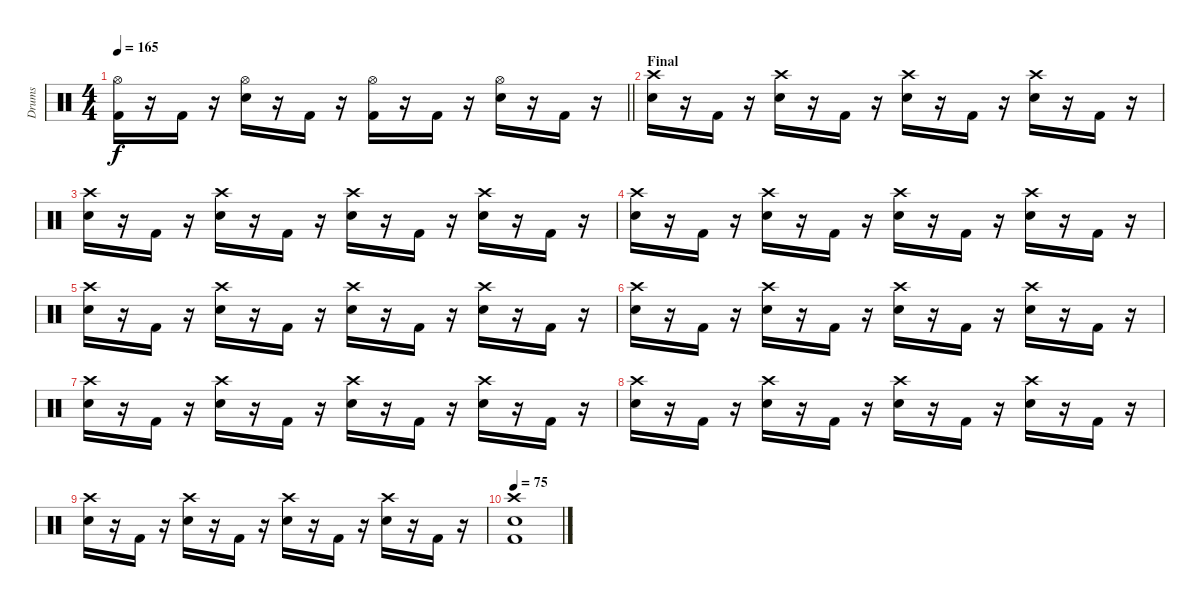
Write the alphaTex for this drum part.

\track ("Drums" "Drums") {instrument percussion}
\staff {score}
\articulation defaults
\ts (4 4)
\tempo 165
\clef neutral
\barLineRight lightlight
\ks c
("Hi-Hat (open)" "Kick (hit) 2").16{dy f} r.16 "Kick (hit) 2".16 r.16 ("Hi-Hat (open)" "Snare (hit) 2").16 r.16 "Kick (hit) 2".16 r.16 ("Hi-Hat (open)" "Kick (hit) 2").16 r.16 "Kick (hit) 2".16 r.16 ("Hi-Hat (open)" "Snare (hit) 2").16 r.16 "Kick (hit) 2".16 r.16 |
\section ("" "Final")
("Crash high (hit)" "Snare (hit) 2").16 r.16 "Kick (hit) 2".16 r.16 ("Crash high (hit)" "Snare (hit) 2").16 r.16 "Kick (hit) 2".16 r.16 ("Crash high (hit)" "Snare (hit) 2").16 r.16 "Kick (hit) 2".16 r.16 ("Crash high (hit)" "Snare (hit) 2").16 r.16 "Kick (hit) 2".16 r.16 |
("Crash high (hit)" "Snare (hit) 2").16 r.16 "Kick (hit) 2".16 r.16 ("Crash high (hit)" "Snare (hit) 2").16 r.16 "Kick (hit) 2".16 r.16 ("Crash high (hit)" "Snare (hit) 2").16 r.16 "Kick (hit) 2".16 r.16 ("Crash high (hit)" "Snare (hit) 2").16 r.16 "Kick (hit) 2".16 r.16 |
("Crash high (hit)" "Snare (hit) 2").16 r.16 "Kick (hit) 2".16 r.16 ("Crash high (hit)" "Snare (hit) 2").16 r.16 "Kick (hit) 2".16 r.16 ("Crash high (hit)" "Snare (hit) 2").16 r.16 "Kick (hit) 2".16 r.16 ("Crash high (hit)" "Snare (hit) 2").16 r.16 "Kick (hit) 2".16 r.16 |
("Crash high (hit)" "Snare (hit) 2").16 r.16 "Kick (hit) 2".16 r.16 ("Crash high (hit)" "Snare (hit) 2").16 r.16 "Kick (hit) 2".16 r.16 ("Crash high (hit)" "Snare (hit) 2").16 r.16 "Kick (hit) 2".16 r.16 ("Crash high (hit)" "Snare (hit) 2").16 r.16 "Kick (hit) 2".16 r.16 |
("Crash high (hit)" "Snare (hit) 2").16 r.16 "Kick (hit) 2".16 r.16 ("Crash high (hit)" "Snare (hit) 2").16 r.16 "Kick (hit) 2".16 r.16 ("Crash high (hit)" "Snare (hit) 2").16 r.16 "Kick (hit) 2".16 r.16 ("Crash high (hit)" "Snare (hit) 2").16 r.16 "Kick (hit) 2".16 r.16 |
("Crash high (hit)" "Snare (hit) 2").16 r.16 "Kick (hit) 2".16 r.16 ("Crash high (hit)" "Snare (hit) 2").16 r.16 "Kick (hit) 2".16 r.16 ("Crash high (hit)" "Snare (hit) 2").16 r.16 "Kick (hit) 2".16 r.16 ("Crash high (hit)" "Snare (hit) 2").16 r.16 "Kick (hit) 2".16 r.16 |
("Crash high (hit)" "Snare (hit) 2").16 r.16 "Kick (hit) 2".16 r.16 ("Crash high (hit)" "Snare (hit) 2").16 r.16 "Kick (hit) 2".16 r.16 ("Crash high (hit)" "Snare (hit) 2").16 r.16 "Kick (hit) 2".16 r.16 ("Crash high (hit)" "Snare (hit) 2").16 r.16 "Kick (hit) 2".16 r.16 |
("Crash high (hit)" "Snare (hit) 2").16 r.16 "Kick (hit) 2".16 r.16 ("Crash high (hit)" "Snare (hit) 2").16 r.16 "Kick (hit) 2".16 r.16 ("Crash high (hit)" "Snare (hit) 2").16 r.16 "Kick (hit) 2".16 r.16 ("Crash high (hit)" "Snare (hit) 2").16 r.16 "Kick (hit) 2".16 r.16 |
\tempo 75
("Snare (hit) 2" "Crash high (hit)" "Kick (hit) 2").1
